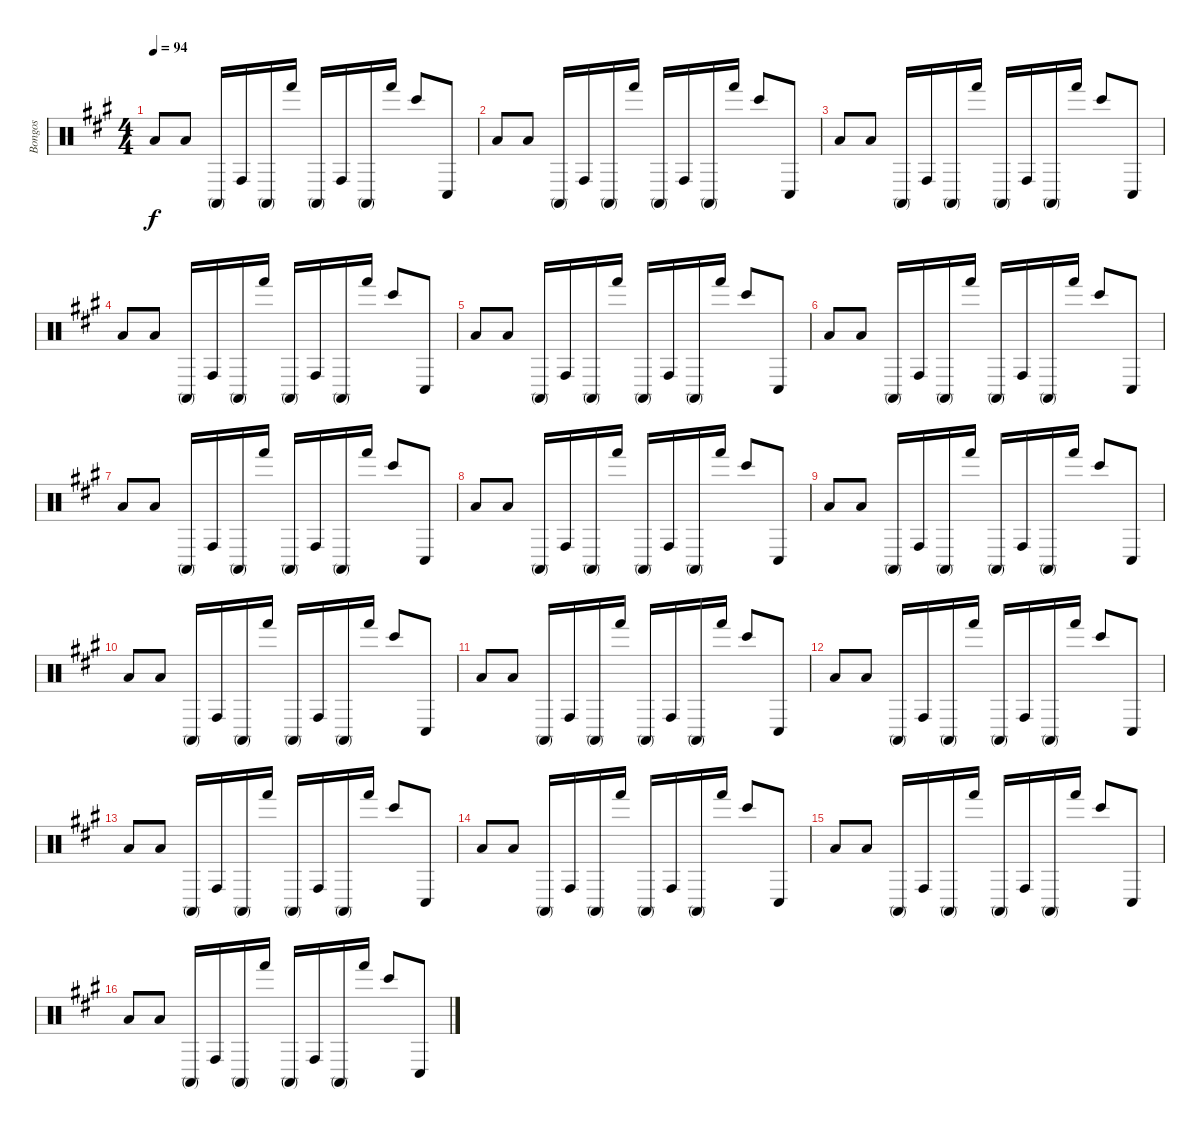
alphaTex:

\track ("Bongos" "Bongos") {instrument percussion}
\staff {score}
\articulation defaults
\ts (4 4)
\tempo 94
\clef neutral
\ks a "Low Floor Tom (hit)".8{dy f} "Low Floor Tom (hit)".8 "Conga high (mute)".16 "Conga high (hit)".16 "Conga high (mute)".16 "Hand (hit)".16 "Conga high (mute)".16 "Conga high (hit)".16 "Conga high (mute)".16 "Hand (hit)".16 "Bongo High (hit)".8 "Conga low (hit)".8
|
"Low Floor Tom (hit)".8{volume 5} "Low Floor Tom (hit)".8 "Conga high (mute)".16 "Conga high (hit)".16 "Conga high (mute)".16 "Hand (hit)".16 "Conga high (mute)".16 "Conga high (hit)".16 "Conga high (mute)".16 "Hand (hit)".16 "Bongo High (hit)".8 "Conga low (hit)".8 |
"Low Floor Tom (hit)".8 "Low Floor Tom (hit)".8 "Conga high (mute)".16 "Conga high (hit)".16 "Conga high (mute)".16 "Hand (hit)".16 "Conga high (mute)".16 "Conga high (hit)".16 "Conga high (mute)".16 "Hand (hit)".16 "Bongo High (hit)".8 "Conga low (hit)".8 |
"Low Floor Tom (hit)".8{volume 5} "Low Floor Tom (hit)".8 "Conga high (mute)".16 "Conga high (hit)".16 "Conga high (mute)".16 "Hand (hit)".16 "Conga high (mute)".16 "Conga high (hit)".16 "Conga high (mute)".16 "Hand (hit)".16 "Bongo High (hit)".8 "Conga low (hit)".8 |
"Low Floor Tom (hit)".8 "Low Floor Tom (hit)".8 "Conga high (mute)".16 "Conga high (hit)".16 "Conga high (mute)".16 "Hand (hit)".16 "Conga high (mute)".16 "Conga high (hit)".16 "Conga high (mute)".16 "Hand (hit)".16 "Bongo High (hit)".8 "Conga low (hit)".8 |
"Low Floor Tom (hit)".8 "Low Floor Tom (hit)".8 "Conga high (mute)".16 "Conga high (hit)".16 "Conga high (mute)".16 "Hand (hit)".16 "Conga high (mute)".16 "Conga high (hit)".16 "Conga high (mute)".16 "Hand (hit)".16 "Bongo High (hit)".8 "Conga low (hit)".8 |
"Low Floor Tom (hit)".8 "Low Floor Tom (hit)".8 "Conga high (mute)".16 "Conga high (hit)".16 "Conga high (mute)".16 "Hand (hit)".16 "Conga high (mute)".16 "Conga high (hit)".16 "Conga high (mute)".16 "Hand (hit)".16 "Bongo High (hit)".8 "Conga low (hit)".8 |
"Low Floor Tom (hit)".8 "Low Floor Tom (hit)".8 "Conga high (mute)".16 "Conga high (hit)".16 "Conga high (mute)".16 "Hand (hit)".16 "Conga high (mute)".16 "Conga high (hit)".16 "Conga high (mute)".16 "Hand (hit)".16 "Bongo High (hit)".8 "Conga low (hit)".8 |
"Low Floor Tom (hit)".8 "Low Floor Tom (hit)".8 "Conga high (mute)".16 "Conga high (hit)".16 "Conga high (mute)".16 "Hand (hit)".16 "Conga high (mute)".16 "Conga high (hit)".16 "Conga high (mute)".16 "Hand (hit)".16 "Bongo High (hit)".8 "Conga low (hit)".8 |
"Low Floor Tom (hit)".8 "Low Floor Tom (hit)".8 "Conga high (mute)".16 "Conga high (hit)".16 "Conga high (mute)".16 "Hand (hit)".16 "Conga high (mute)".16 "Conga high (hit)".16 "Conga high (mute)".16 "Hand (hit)".16 "Bongo High (hit)".8 "Conga low (hit)".8 |
"Low Floor Tom (hit)".8 "Low Floor Tom (hit)".8 "Conga high (mute)".16 "Conga high (hit)".16 "Conga high (mute)".16 "Hand (hit)".16 "Conga high (mute)".16 "Conga high (hit)".16 "Conga high (mute)".16 "Hand (hit)".16 "Bongo High (hit)".8 "Conga low (hit)".8 |
"Low Floor Tom (hit)".8 "Low Floor Tom (hit)".8 "Conga high (mute)".16 "Conga high (hit)".16 "Conga high (mute)".16 "Hand (hit)".16 "Conga high (mute)".16 "Conga high (hit)".16 "Conga high (mute)".16 "Hand (hit)".16 "Bongo High (hit)".8 "Conga low (hit)".8 |
"Low Floor Tom (hit)".8{volume 5} "Low Floor Tom (hit)".8 "Conga high (mute)".16 "Conga high (hit)".16 "Conga high (mute)".16 "Hand (hit)".16 "Conga high (mute)".16 "Conga high (hit)".16 "Conga high (mute)".16 "Hand (hit)".16 "Bongo High (hit)".8 "Conga low (hit)".8 |
"Low Floor Tom (hit)".8 "Low Floor Tom (hit)".8 "Conga high (mute)".16 "Conga high (hit)".16 "Conga high (mute)".16 "Hand (hit)".16 "Conga high (mute)".16 "Conga high (hit)".16 "Conga high (mute)".16 "Hand (hit)".16 "Bongo High (hit)".8 "Conga low (hit)".8 |
"Low Floor Tom (hit)".8 "Low Floor Tom (hit)".8 "Conga high (mute)".16 "Conga high (hit)".16 "Conga high (mute)".16 "Hand (hit)".16 "Conga high (mute)".16 "Conga high (hit)".16 "Conga high (mute)".16 "Hand (hit)".16 "Bongo High (hit)".8 "Conga low (hit)".8 |
"Low Floor Tom (hit)".8 "Low Floor Tom (hit)".8 "Conga high (mute)".16 "Conga high (hit)".16 "Conga high (mute)".16 "Hand (hit)".16 "Conga high (mute)".16 "Conga high (hit)".16 "Conga high (mute)".16 "Hand (hit)".16 "Bongo High (hit)".8 "Conga low (hit)".8
